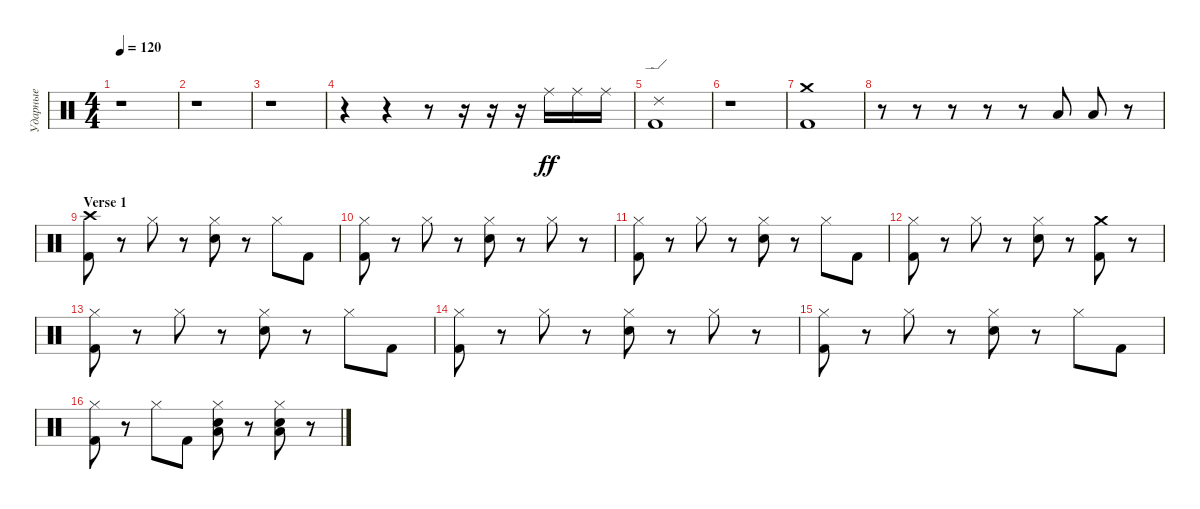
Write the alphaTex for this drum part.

\track ("Ударные" "Ударные") {instrument percussion}
\staff {score}
\articulation defaults
\ts (4 4)
\tempo 120
\clef neutral
\ks c
r.1{dy ff} |
r.1 |
r.1 |
r.4 r.4 r.8 r.16 r.16 r.16 "Ride (middle)".16 "Ride (middle)".16 "Ride (middle)".16 |
("Ride (edge) 2" "Kick (hit) 2").1 |
r.1 |
("Crash medium (hit)" "Kick (hit) 2").1 |
r.8 r.8 r.8 r.8 r.8 "Low Floor Tom (hit)".8 "Low Floor Tom (hit)".8 r.8 |
\section ("" "Verse 1")
("Crash high (hit)" "Kick (hit) 2").8 r.8 "Hi-Hat (closed)".8 r.8 ("Hi-Hat (closed)" "Snare (hit) 2").8 r.8 "Hi-Hat (closed)".8 "Kick (hit) 2".8 |
("Hi-Hat (closed)" "Kick (hit) 2").8 r.8 "Hi-Hat (closed)".8 r.8 ("Hi-Hat (closed)" "Snare (hit) 2").8 r.8 "Hi-Hat (closed)".8 r.8 |
("Hi-Hat (closed)" "Kick (hit) 2").8 r.8 "Hi-Hat (closed)".8 r.8 ("Hi-Hat (closed)" "Snare (hit) 2").8 r.8 "Hi-Hat (closed)".8 "Kick (hit) 2".8 |
("Hi-Hat (closed)" "Kick (hit) 2").8 r.8 "Hi-Hat (closed)".8 r.8 ("Hi-Hat (closed)" "Snare (hit) 2").8 r.8 ("Crash medium (hit)" "Kick (hit) 2").8 r.8 |
("Hi-Hat (closed)" "Kick (hit) 2").8 r.8 "Hi-Hat (closed)".8 r.8 ("Hi-Hat (closed)" "Snare (hit) 2").8 r.8 "Hi-Hat (closed)".8 "Kick (hit) 2".8 |
("Hi-Hat (closed)" "Kick (hit) 2").8 r.8 "Hi-Hat (closed)".8 r.8 ("Hi-Hat (closed)" "Snare (hit) 2").8 r.8 "Hi-Hat (closed)".8 r.8 |
("Hi-Hat (closed)" "Kick (hit) 2").8 r.8 "Hi-Hat (closed)".8 r.8 ("Hi-Hat (closed)" "Snare (hit) 2").8 r.8 "Hi-Hat (closed)".8 "Kick (hit) 2".8 |
("Hi-Hat (closed)" "Kick (hit) 2").8 r.8 "Hi-Hat (closed)".8 "Kick (hit) 2".8 ("Hi-Hat (closed)" "Snare (hit) 2" "Low Floor Tom (hit)").8 r.8 ("Hi-Hat (closed)" "Snare (hit) 2" "Low Floor Tom (hit)").8 r.8
